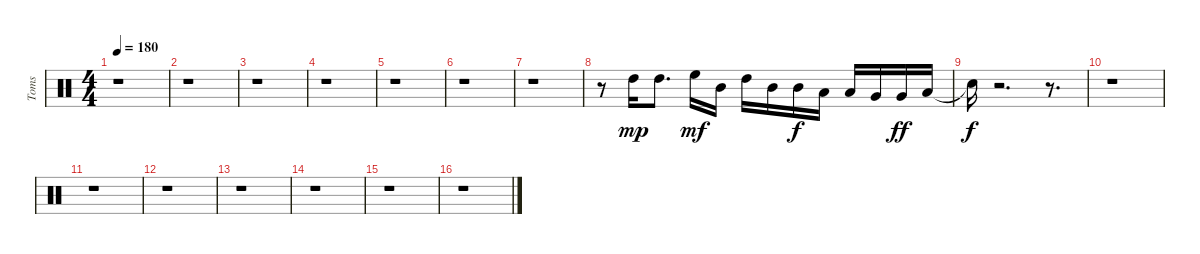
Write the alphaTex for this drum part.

\track ("Toms" "Toms") {instrument percussion}
\staff {score}
\articulation defaults
\ts (4 4)
\tempo 180
\clef neutral
\ks c
r.1{dy mp} |
r.1 |
r.1 |
r.1 |
r.1 |
r.1 |
r.1 |
r.8 "High Tom (hit)".16 "High Tom (hit)".8{d} "High Floor Tom (hit)".16{dy mf} "Mid Tom (hit)".16 "High Tom (hit)".16 "Mid Tom (hit)".16 "Mid Tom (hit)".16{dy f} "Low Tom (hit)".16 "Low Tom (hit)".16 "Very Low Tom (hit)".16 "Very Low Tom (hit)".16{dy ff} "Low Floor Tom (hit)".16 |
"Snare (hit)"{t}.16{dy f} r.2{d} r.8{d} |
r.1 |
r.1 |
r.1 |
r.1 |
r.1 |
r.1 |
r.1
